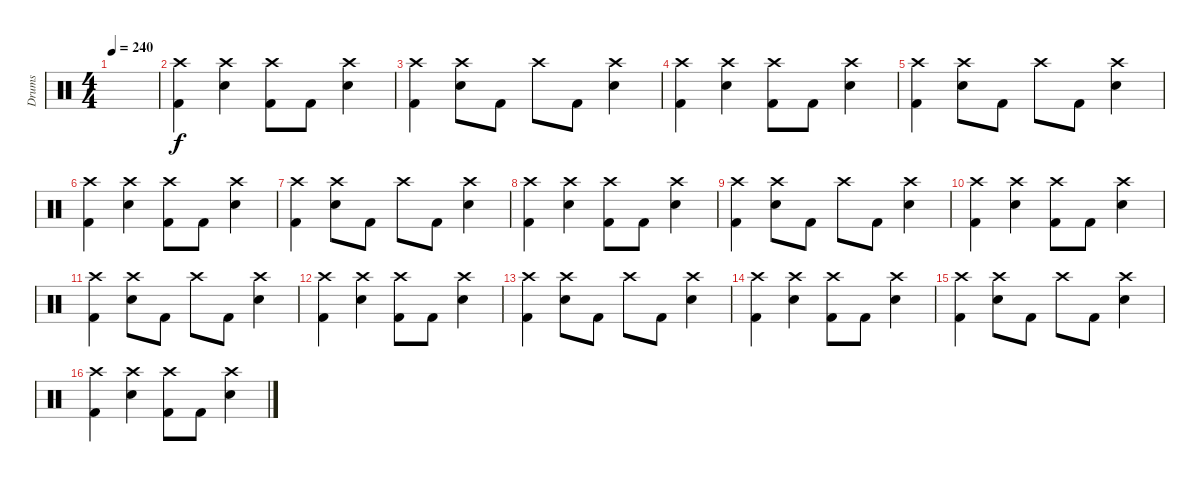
\track ("Drums" "Drums") {instrument percussion}
\staff {score}
\articulation defaults
\ts (4 4)
\tempo 240
\clef neutral
\ks c
|
("Crash high (hit)" "Kick (hit) 2").4 ("Crash high (hit)" "Snare (hit) 2").4 ("Crash high (hit)" "Kick (hit) 2").8 "Kick (hit) 2".8 ("Crash high (hit)" "Snare (hit) 2").4 |
("Crash high (hit)" "Kick (hit) 2").4 ("Crash high (hit)" "Snare (hit) 2").8 "Kick (hit) 2".8 "Crash high (hit)".8 "Kick (hit) 2".8 ("Crash high (hit)" "Snare (hit) 2").4 |
("Crash high (hit)" "Kick (hit) 2").4 ("Crash high (hit)" "Snare (hit) 2").4 ("Crash high (hit)" "Kick (hit) 2").8 "Kick (hit) 2".8 ("Crash high (hit)" "Snare (hit) 2").4 |
("Crash high (hit)" "Kick (hit) 2").4 ("Crash high (hit)" "Snare (hit) 2").8 "Kick (hit) 2".8 "Crash high (hit)".8 "Kick (hit) 2".8 ("Crash high (hit)" "Snare (hit) 2").4 |
("Crash high (hit)" "Kick (hit) 2").4 ("Crash high (hit)" "Snare (hit) 2").4 ("Crash high (hit)" "Kick (hit) 2").8 "Kick (hit) 2".8 ("Crash high (hit)" "Snare (hit) 2").4 |
("Crash high (hit)" "Kick (hit) 2").4 ("Crash high (hit)" "Snare (hit) 2").8 "Kick (hit) 2".8 "Crash high (hit)".8 "Kick (hit) 2".8 ("Crash high (hit)" "Snare (hit) 2").4 |
("Crash high (hit)" "Kick (hit) 2").4 ("Crash high (hit)" "Snare (hit) 2").4 ("Crash high (hit)" "Kick (hit) 2").8 "Kick (hit) 2".8 ("Crash high (hit)" "Snare (hit) 2").4 |
("Crash high (hit)" "Kick (hit) 2").4 ("Crash high (hit)" "Snare (hit) 2").8 "Kick (hit) 2".8 "Crash high (hit)".8 "Kick (hit) 2".8 ("Crash high (hit)" "Snare (hit) 2").4 |
("Crash high (hit)" "Kick (hit) 2").4 ("Crash high (hit)" "Snare (hit) 2").4 ("Crash high (hit)" "Kick (hit) 2").8 "Kick (hit) 2".8 ("Crash high (hit)" "Snare (hit) 2").4 |
("Crash high (hit)" "Kick (hit) 2").4 ("Crash high (hit)" "Snare (hit) 2").8 "Kick (hit) 2".8 "Crash high (hit)".8 "Kick (hit) 2".8 ("Crash high (hit)" "Snare (hit) 2").4 |
("Crash high (hit)" "Kick (hit) 2").4 ("Crash high (hit)" "Snare (hit) 2").4 ("Crash high (hit)" "Kick (hit) 2").8 "Kick (hit) 2".8 ("Crash high (hit)" "Snare (hit) 2").4 |
("Crash high (hit)" "Kick (hit) 2").4 ("Crash high (hit)" "Snare (hit) 2").8 "Kick (hit) 2".8 "Crash high (hit)".8 "Kick (hit) 2".8 ("Crash high (hit)" "Snare (hit) 2").4 |
("Crash high (hit)" "Kick (hit) 2").4 ("Crash high (hit)" "Snare (hit) 2").4 ("Crash high (hit)" "Kick (hit) 2").8 "Kick (hit) 2".8 ("Crash high (hit)" "Snare (hit) 2").4 |
("Crash high (hit)" "Kick (hit) 2").4 ("Crash high (hit)" "Snare (hit) 2").8 "Kick (hit) 2".8 "Crash high (hit)".8 "Kick (hit) 2".8 ("Crash high (hit)" "Snare (hit) 2").4 |
("Crash high (hit)" "Kick (hit) 2").4 ("Crash high (hit)" "Snare (hit) 2").4 ("Crash high (hit)" "Kick (hit) 2").8 "Kick (hit) 2".8 ("Crash high (hit)" "Snare (hit) 2").4
